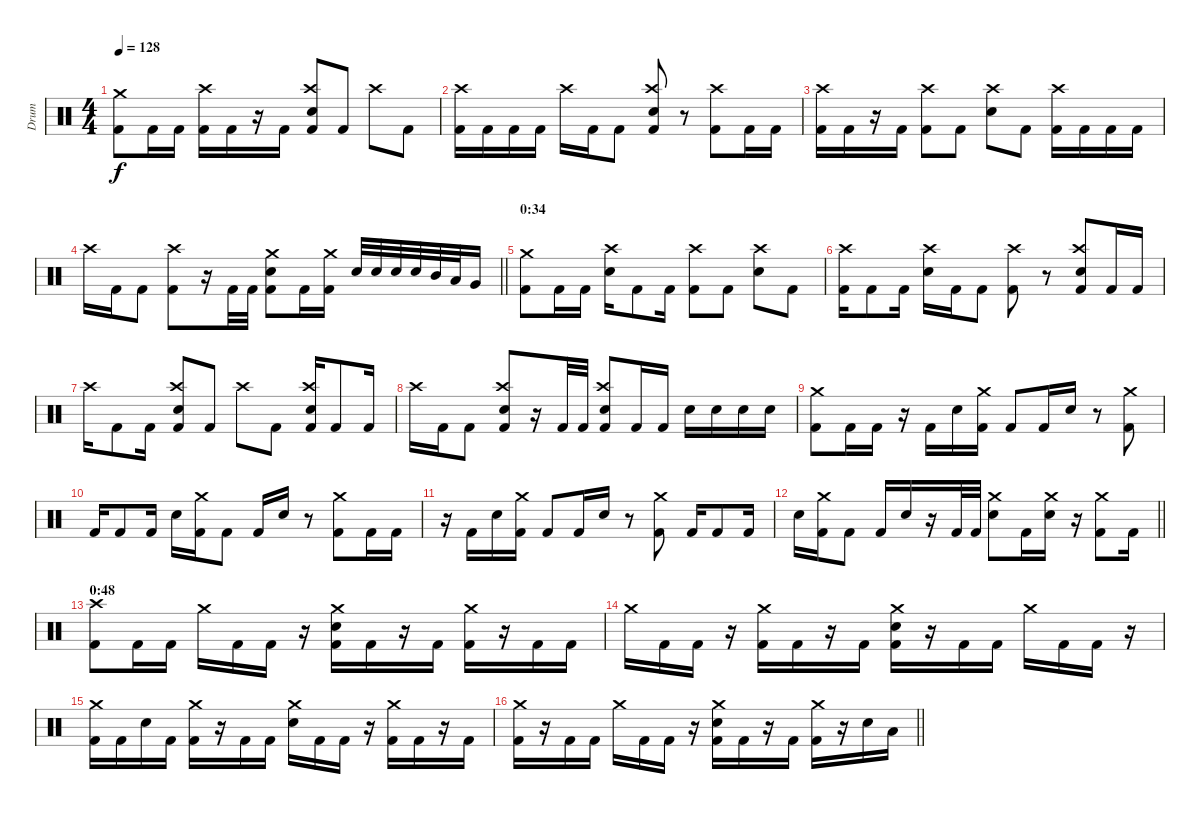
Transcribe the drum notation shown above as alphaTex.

\track ("Drum" "Drum") {instrument percussion}
\staff {score}
\articulation defaults
\ts (4 4)
\tempo 128
\clef neutral
\ks c
("Crash medium (hit)" "Kick (hit) 2").8{dy f} "Kick (hit) 2".16 "Kick (hit) 2".16 ("Crash high (hit)" "Kick (hit) 2").16 "Kick (hit) 2".16 r.16 "Kick (hit) 2".16 ("Crash high (hit)" "Electric Snare (hit)" "Kick (hit) 2").8 "Kick (hit) 2".8 "Crash high (hit)".8 "Kick (hit) 2".8 |
("Crash high (hit)" "Kick (hit) 2").16 "Kick (hit) 2".16 "Kick (hit) 2".16 "Kick (hit) 2".16 "Crash high (hit)".16 "Kick (hit) 2".16 "Kick (hit) 2".8 ("Crash high (hit)" "Electric Snare (hit)" "Kick (hit) 2").8 r.8 ("Crash high (hit)" "Kick (hit) 2").8 "Kick (hit) 2".16 "Kick (hit) 2".16 |
("Crash high (hit)" "Kick (hit) 2").16 "Kick (hit) 2".16 r.16 "Kick (hit) 2".16 ("Crash high (hit)" "Kick (hit) 2").8 "Kick (hit) 2".8 ("Crash high (hit)" "Electric Snare (hit)").8 "Kick (hit) 2".8 ("Crash high (hit)" "Kick (hit) 2").16 "Kick (hit) 2".16 "Kick (hit) 2".16 "Kick (hit) 2".16 |
\barLineRight lightlight "Crash high (hit)".16 "Kick (hit) 2".16 "Kick (hit) 2".8
("Crash high (hit)" "Kick (hit) 2").8 r.16 "Kick (hit) 2".32 "Kick (hit) 2".32 ("Crash medium (hit)" "Electric Snare (hit)" "Kick (hit) 2").8 "Kick (hit) 2".16 ("Crash medium (hit)" "Kick (hit) 2").16 "Electric Snare (hit)".32 "Electric Snare (hit)".32 "Electric Snare (hit)".32 "Electric Snare (hit)".32 "Mid Tom (hit)".32 "Low Tom (hit)".32 "Very Low Tom (hit)".16 |
\section ("" "0:34")
("Crash medium (hit)" "Kick (hit) 2").8 "Kick (hit) 2".16 "Kick (hit) 2".16 ("Crash high (hit)" "Electric Snare (hit)").16 "Kick (hit) 2".8 "Kick (hit) 2".16 ("Crash high (hit)" "Kick (hit) 2").8 "Kick (hit) 2".8 ("Crash high (hit)" "Electric Snare (hit)").8 "Kick (hit) 2".8 |
("Crash high (hit)" "Kick (hit) 2").16 "Kick (hit) 2".8 "Kick (hit) 2".16 ("Crash high (hit)" "Electric Snare (hit)").16 "Kick (hit) 2".16 "Kick (hit) 2".8 ("Crash high (hit)" "Kick (hit) 2").8 r.8 ("Crash high (hit)" "Electric Snare (hit)" "Kick (hit) 2").8 "Kick (hit) 2".16 "Kick (hit) 2".16 |
"Crash high (hit)".16 "Kick (hit) 2".8 "Kick (hit) 2".16 ("Crash high (hit)" "Electric Snare (hit)" "Kick (hit) 2").8 "Kick (hit) 2".8 "Crash high (hit)".8 "Kick (hit) 2".8 ("Crash high (hit)" "Electric Snare (hit)" "Kick (hit) 2").16 "Kick (hit) 2".8 "Kick (hit) 2".16 |
"Crash high (hit)".16 "Kick (hit) 2".16 "Kick (hit) 2".8 ("Crash high (hit)" "Electric Snare (hit)" "Kick (hit) 2").8 r.16 "Kick (hit) 2".32 "Kick (hit) 2".32 ("Crash high (hit)" "Electric Snare (hit)" "Kick (hit) 2").8 "Kick (hit) 2".16 "Kick (hit) 2".16 "Electric Snare (hit)".16 "Electric Snare (hit)".16 "Electric Snare (hit)".16 "Electric Snare (hit)".16 |
("Crash medium (hit)" "Kick (hit) 2").8 "Kick (hit) 2".16 "Kick (hit) 2".16 r.16 "Kick (hit) 2".16 "Electric Snare (hit)".16 ("Crash medium (hit)" "Kick (hit) 2").16 "Kick (hit) 2".8 "Kick (hit) 2".16 "Electric Snare (hit)".16 r.8 ("Crash medium (hit)" "Kick (hit) 2").8 |
"Kick (hit) 2".16 "Kick (hit) 2".8 "Kick (hit) 2".16 "Electric Snare (hit)".16 ("Crash medium (hit)" "Kick (hit) 2").16 "Kick (hit) 2".8 "Kick (hit) 2".16 "Electric Snare (hit)".16 r.8 ("Crash medium (hit)" "Kick (hit) 2").8 "Kick (hit) 2".16 "Kick (hit) 2".16 |
r.16 "Kick (hit) 2".16 "Electric Snare (hit)".16 ("Crash medium (hit)" "Kick (hit) 2").16 "Kick (hit) 2".8 "Kick (hit) 2".16 "Electric Snare (hit)".16 r.8 ("Crash medium (hit)" "Kick (hit) 2").8 "Kick (hit) 2".16 "Kick (hit) 2".8 "Kick (hit) 2".16 |
\barLineRight lightlight "Electric Snare (hit)".16
("Crash medium (hit)" "Kick (hit) 2").16 "Kick (hit) 2".8 "Kick (hit) 2".16 "Electric Snare (hit)".16 r.16 "Kick (hit) 2".32 "Kick (hit) 2".32 ("Crash medium (hit)" "Electric Snare (hit)").8 "Kick (hit) 2".16 ("Crash medium (hit)" "Electric Snare (hit)").16 r.16 ("Crash medium (hit)" "Kick (hit) 2").8 "Kick (hit) 2".16 |
\section ("" "0:48")
("Crash high (hit)" "Kick (hit) 2").8 "Kick (hit) 2".16 "Kick (hit) 2".16 "Crash medium (hit)".16 "Kick (hit) 2".16 "Kick (hit) 2".16 r.16 ("Crash medium (hit)" "Electric Snare (hit)" "Kick (hit) 2").16 "Kick (hit) 2".16 r.16 "Kick (hit) 2".16 ("Crash medium (hit)" "Kick (hit) 2").16 r.16 "Kick (hit) 2".16 "Kick (hit) 2".16 |
"Crash medium (hit)".16 "Kick (hit) 2".16 "Kick (hit) 2".16 r.16 ("Crash medium (hit)" "Kick (hit) 2").16 "Kick (hit) 2".16 r.16 "Kick (hit) 2".16 ("Crash medium (hit)" "Electric Snare (hit)" "Kick (hit) 2").16 r.16 "Kick (hit) 2".16 "Kick (hit) 2".16 "Crash medium (hit)".16 "Kick (hit) 2".16 "Kick (hit) 2".16 r.16 |
("Crash medium (hit)" "Kick (hit) 2").16 "Kick (hit) 2".16 "Electric Snare (hit)".16 "Kick (hit) 2".16 ("Crash medium (hit)" "Kick (hit) 2").16 r.16 "Kick (hit) 2".16 "Kick (hit) 2".16 ("Crash medium (hit)" "Electric Snare (hit)").16 "Kick (hit) 2".16 "Kick (hit) 2".16 r.16 ("Crash medium (hit)" "Kick (hit) 2").16 "Kick (hit) 2".16 r.16 "Kick (hit) 2".16 |
\barLineRight lightlight
("Crash medium (hit)" "Kick (hit) 2").16 r.16 "Kick (hit) 2".16 "Kick (hit) 2".16 "Crash medium (hit)".16 "Kick (hit) 2".16 "Kick (hit) 2".16 r.16 ("Crash medium (hit)" "Electric Snare (hit)" "Kick (hit) 2").16 "Kick (hit) 2".16 r.16 "Kick (hit) 2".16 ("Crash medium (hit)" "Kick (hit) 2").16 r.16 "Electric Snare (hit)".16 "Low Tom (hit)".16
